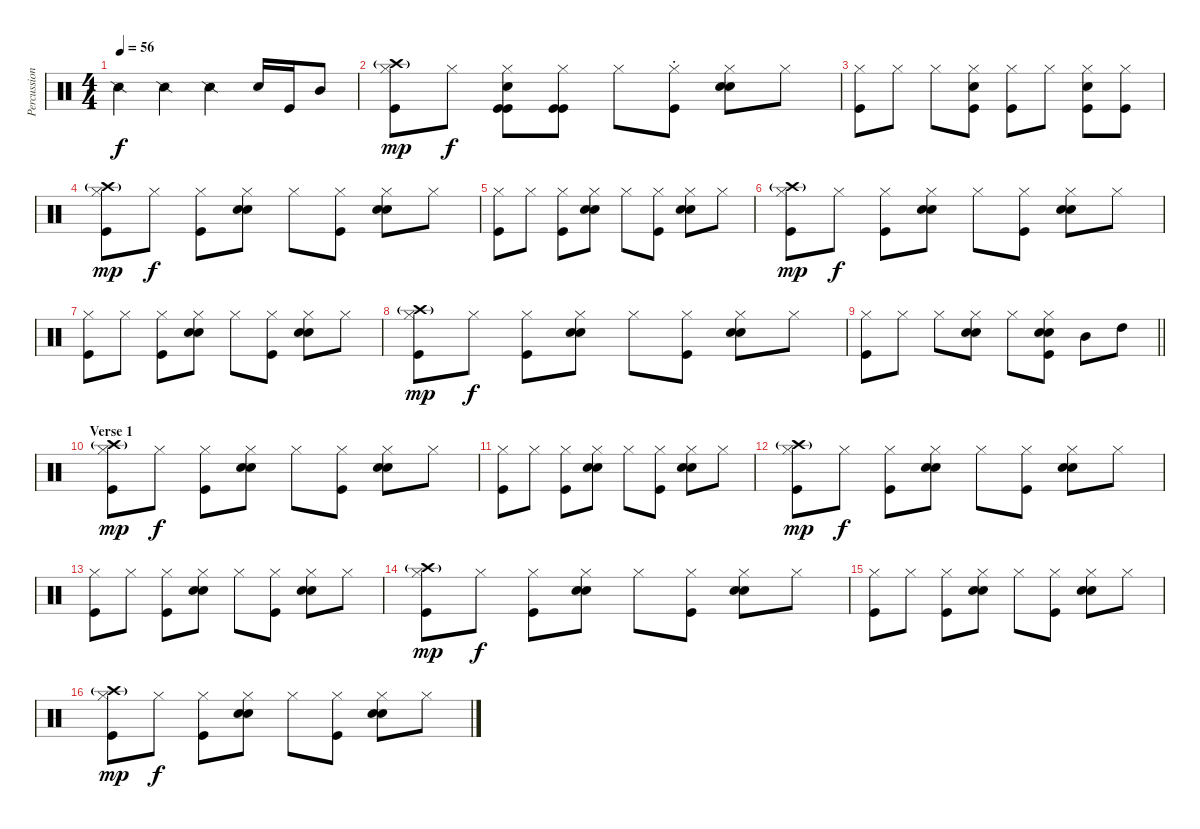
\track ("Percussion" "Percussion") {instrument percussion}
\staff {score}
\articulation defaults
\ts (4 4)
\tempo 56
\clef neutral
\ks c "Snare (side stick) 2".4{dy f} "Snare (side stick) 2".4 "Snare (side stick) 2".4 "Snare (hit) 2".16 "Kick (hit)".16 "Mid Tom (hit)".8
|
("Hi-Hat (closed)" "Crash high (hit)"{g} "Kick (hit)").8{dy mp} "Hi-Hat (closed)".8{dy f} ("Hi-Hat (closed)" "Snare (hit) 2" "Kick (hit)" "Kick (hit)").8 ("Hi-Hat (closed)" "Kick (hit)" "Kick (hit)").8 "Hi-Hat (closed)".8 ("Hi-Hat (closed)" "Kick (hit)"{st}).8 ("Hi-Hat (closed)" "Snare (hit) 2" "Snare (hit) 2").8 "Hi-Hat (closed)".8 |
("Hi-Hat (closed)" "Kick (hit)").8 "Hi-Hat (closed)".8 "Hi-Hat (closed)".8 ("Hi-Hat (closed)" "Snare (hit) 2" "Kick (hit)").8 ("Hi-Hat (closed)" "Kick (hit)").8 "Hi-Hat (closed)".8 ("Hi-Hat (closed)" "Snare (hit) 2" "Kick (hit)").8 ("Hi-Hat (closed)" "Kick (hit)").8 |
("Hi-Hat (closed)" "Crash high (hit)"{g} "Kick (hit)").8{dy mp} "Hi-Hat (closed)".8{dy f} ("Hi-Hat (closed)" "Kick (hit)").8 ("Hi-Hat (closed)" "Snare (hit) 2" "Snare (hit) 2").8 "Hi-Hat (closed)".8 ("Hi-Hat (closed)" "Kick (hit)").8 ("Hi-Hat (closed)" "Snare (hit) 2" "Snare (hit) 2").8 "Hi-Hat (closed)".8 |
("Hi-Hat (closed)" "Kick (hit)").8 "Hi-Hat (closed)".8 ("Hi-Hat (closed)" "Kick (hit)").8 ("Hi-Hat (closed)" "Snare (hit) 2" "Snare (hit) 2").8 "Hi-Hat (closed)".8 ("Hi-Hat (closed)" "Kick (hit)").8 ("Hi-Hat (closed)" "Snare (hit) 2" "Snare (hit) 2").8 "Hi-Hat (closed)".8 |
("Hi-Hat (closed)" "Crash high (hit)"{g} "Kick (hit)").8{dy mp} "Hi-Hat (closed)".8{dy f} ("Hi-Hat (closed)" "Kick (hit)").8 ("Hi-Hat (closed)" "Snare (hit) 2" "Snare (hit) 2").8 "Hi-Hat (closed)".8 ("Hi-Hat (closed)" "Kick (hit)").8 ("Hi-Hat (closed)" "Snare (hit) 2" "Snare (hit) 2").8 "Hi-Hat (closed)".8 |
("Hi-Hat (closed)" "Kick (hit)").8 "Hi-Hat (closed)".8 ("Hi-Hat (closed)" "Kick (hit)").8 ("Hi-Hat (closed)" "Snare (hit) 2" "Snare (hit) 2").8 "Hi-Hat (closed)".8 ("Hi-Hat (closed)" "Kick (hit)").8 ("Hi-Hat (closed)" "Snare (hit) 2" "Snare (hit) 2").8 "Hi-Hat (closed)".8 |
("Hi-Hat (closed)" "Crash high (hit)"{g} "Kick (hit)").8{dy mp} "Hi-Hat (closed)".8{dy f} ("Hi-Hat (closed)" "Kick (hit)").8 ("Hi-Hat (closed)" "Snare (hit) 2" "Snare (hit) 2").8 "Hi-Hat (closed)".8 ("Hi-Hat (closed)" "Kick (hit)").8 ("Hi-Hat (closed)" "Snare (hit) 2" "Snare (hit) 2").8 "Hi-Hat (closed)".8 |
\barLineRight lightlight
("Hi-Hat (closed)" "Kick (hit)").8 "Hi-Hat (closed)".8 "Hi-Hat (closed)".8 ("Hi-Hat (closed)" "Snare (hit) 2" "Snare (hit) 2").8 "Hi-Hat (closed)".8 ("Hi-Hat (closed)" "Snare (hit) 2" "Snare (hit) 2" "Kick (hit)").8 "Mid Tom (hit)".8 "High Tom (hit)".8 |
\section ("" "Verse 1")
("Hi-Hat (closed)" "Crash high (hit)"{g} "Kick (hit)").8{dy mp} "Hi-Hat (closed)".8{dy f} ("Hi-Hat (closed)" "Kick (hit)").8 ("Hi-Hat (closed)" "Snare (hit) 2" "Snare (hit) 2").8 "Hi-Hat (closed)".8 ("Hi-Hat (closed)" "Kick (hit)").8 ("Hi-Hat (closed)" "Snare (hit) 2" "Snare (hit) 2").8 "Hi-Hat (closed)".8 |
("Hi-Hat (closed)" "Kick (hit)").8 "Hi-Hat (closed)".8 ("Hi-Hat (closed)" "Kick (hit)").8 ("Hi-Hat (closed)" "Snare (hit) 2" "Snare (hit) 2").8 "Hi-Hat (closed)".8 ("Hi-Hat (closed)" "Kick (hit)").8 ("Hi-Hat (closed)" "Snare (hit) 2" "Snare (hit) 2").8 "Hi-Hat (closed)".8 |
("Hi-Hat (closed)" "Crash high (hit)"{g} "Kick (hit)").8{dy mp} "Hi-Hat (closed)".8{dy f} ("Hi-Hat (closed)" "Kick (hit)").8 ("Hi-Hat (closed)" "Snare (hit) 2" "Snare (hit) 2").8 "Hi-Hat (closed)".8 ("Hi-Hat (closed)" "Kick (hit)").8 ("Hi-Hat (closed)" "Snare (hit) 2" "Snare (hit) 2").8 "Hi-Hat (closed)".8 |
("Hi-Hat (closed)" "Kick (hit)").8 "Hi-Hat (closed)".8 ("Hi-Hat (closed)" "Kick (hit)").8 ("Hi-Hat (closed)" "Snare (hit) 2" "Snare (hit) 2").8 "Hi-Hat (closed)".8 ("Hi-Hat (closed)" "Kick (hit)").8 ("Hi-Hat (closed)" "Snare (hit) 2" "Snare (hit) 2").8 "Hi-Hat (closed)".8 |
("Hi-Hat (closed)" "Crash high (hit)"{g} "Kick (hit)").8{dy mp} "Hi-Hat (closed)".8{dy f} ("Hi-Hat (closed)" "Kick (hit)").8 ("Hi-Hat (closed)" "Snare (hit) 2" "Snare (hit) 2").8 "Hi-Hat (closed)".8 ("Hi-Hat (closed)" "Kick (hit)").8 ("Hi-Hat (closed)" "Snare (hit) 2" "Snare (hit) 2").8 "Hi-Hat (closed)".8 |
("Hi-Hat (closed)" "Kick (hit)").8 "Hi-Hat (closed)".8 ("Hi-Hat (closed)" "Kick (hit)").8 ("Hi-Hat (closed)" "Snare (hit) 2" "Snare (hit) 2").8 "Hi-Hat (closed)".8 ("Hi-Hat (closed)" "Kick (hit)").8 ("Hi-Hat (closed)" "Snare (hit) 2" "Snare (hit) 2").8 "Hi-Hat (closed)".8 |
("Hi-Hat (closed)" "Crash high (hit)"{g} "Kick (hit)").8{dy mp} "Hi-Hat (closed)".8{dy f} ("Hi-Hat (closed)" "Kick (hit)").8 ("Hi-Hat (closed)" "Snare (hit) 2" "Snare (hit) 2").8 "Hi-Hat (closed)".8 ("Hi-Hat (closed)" "Kick (hit)").8 ("Hi-Hat (closed)" "Snare (hit) 2" "Snare (hit) 2").8 "Hi-Hat (closed)".8
